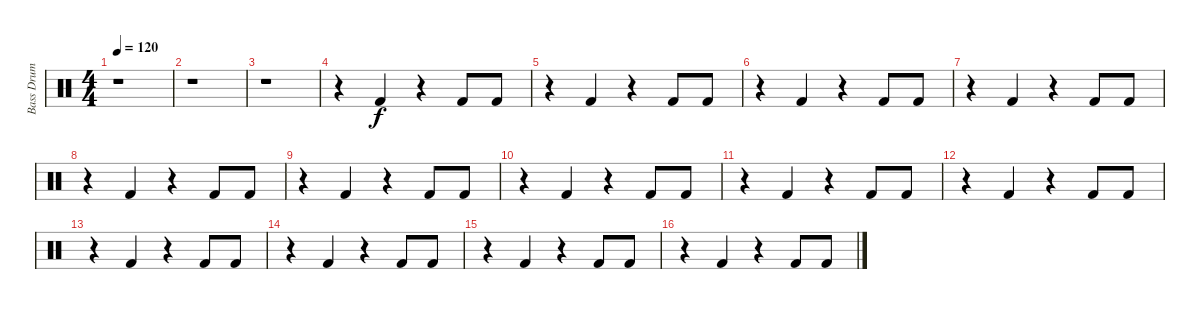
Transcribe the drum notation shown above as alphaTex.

\track ("Bass Drum" "Bass Drum") {instrument percussion}
\staff {score}
\articulation defaults
\ts (4 4)
\tempo 120
\clef neutral
\ks c
r.1{dy f} |
r.1 |
r.1 |
r.4 "Kick (hit) 2".4 r.4 "Kick (hit) 2".8 "Kick (hit) 2".8 |
r.4 "Kick (hit) 2".4 r.4 "Kick (hit) 2".8 "Kick (hit) 2".8 |
r.4 "Kick (hit) 2".4 r.4 "Kick (hit) 2".8 "Kick (hit) 2".8 |
r.4 "Kick (hit) 2".4 r.4 "Kick (hit) 2".8 "Kick (hit) 2".8 |
r.4 "Kick (hit) 2".4 r.4 "Kick (hit) 2".8 "Kick (hit) 2".8 |
r.4 "Kick (hit) 2".4 r.4 "Kick (hit) 2".8 "Kick (hit) 2".8 |
r.4 "Kick (hit) 2".4 r.4 "Kick (hit) 2".8 "Kick (hit) 2".8 |
r.4 "Kick (hit) 2".4 r.4 "Kick (hit) 2".8 "Kick (hit) 2".8 |
r.4 "Kick (hit) 2".4 r.4 "Kick (hit) 2".8 "Kick (hit) 2".8 |
r.4 "Kick (hit) 2".4 r.4 "Kick (hit) 2".8 "Kick (hit) 2".8 |
r.4 "Kick (hit) 2".4 r.4 "Kick (hit) 2".8 "Kick (hit) 2".8 |
r.4 "Kick (hit) 2".4 r.4 "Kick (hit) 2".8 "Kick (hit) 2".8 |
r.4 "Kick (hit) 2".4 r.4 "Kick (hit) 2".8 "Kick (hit) 2".8
